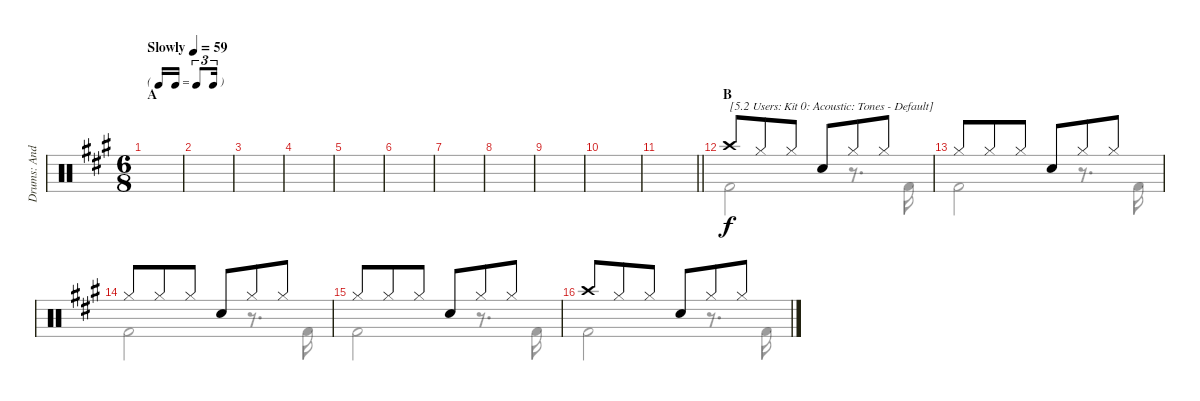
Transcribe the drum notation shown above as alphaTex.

\track ("Drums: Andy Newmark" "Drums: And") {instrument percussion}
\staff {score}
\articulation defaults
\voice
\ts (6 8)
\tf triplet16th
\section ("" "A")
\tempo (59 "Slowly")
\clef neutral
\ks a
|
|
|
|
|
|
|
|
|
|
\barLineRight lightlight
|
\section ("" "B")
"Crash high (hit)".8{txt "[5.2 Users: Kit 0: Acoustic: Tones - Default]"} "Hi-Hat (closed)".8 "Hi-Hat (closed)".8 "Snare (hit) 2".8 "Hi-Hat (closed)".8 "Hi-Hat (closed)".8 |
"Hi-Hat (closed)".8 "Hi-Hat (closed)".8 "Hi-Hat (closed)".8 "Snare (hit) 2".8 "Hi-Hat (closed)".8 "Hi-Hat (closed)".8 |
"Hi-Hat (closed)".8 "Hi-Hat (closed)".8 "Hi-Hat (closed)".8 "Snare (hit) 2".8 "Hi-Hat (closed)".8 "Hi-Hat (closed)".8 |
"Hi-Hat (closed)".8 "Hi-Hat (closed)".8 "Hi-Hat (closed)".8 "Snare (hit) 2".8 "Hi-Hat (closed)".8 "Hi-Hat (closed)".8 |
"Crash high (hit)".8 "Hi-Hat (closed)".8 "Hi-Hat (closed)".8 "Snare (hit) 2".8 "Hi-Hat (closed)".8 "Hi-Hat (closed)".8
\voice
\clef neutral
\ottava regular
\simile none
\ks a
|
|
|
|
|
|
|
|
|
|
\barLineRight lightlight
|
"Kick (hit) 2".2 r.8{d} "Kick (hit) 2".16 |
"Kick (hit) 2".2 r.8{d} "Kick (hit) 2".16 |
"Kick (hit) 2".2 r.8{d} "Kick (hit) 2".16 |
"Kick (hit) 2".2 r.8{d} "Kick (hit) 2".16 |
"Kick (hit) 2".2 r.8{d} "Kick (hit) 2".16
